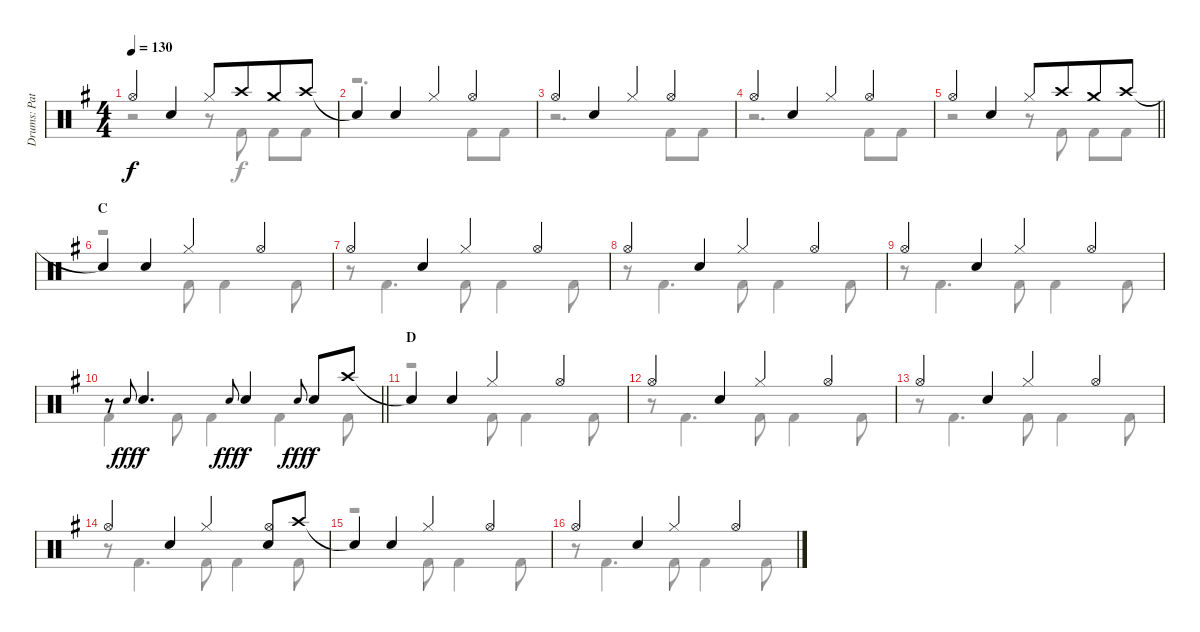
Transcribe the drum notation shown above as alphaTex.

\track ("Drums: Pat" "Drums: Pat") {instrument percussion}
\staff {score}
\articulation defaults
\voice
\ts (4 4)
\tempo 130
\clef neutral
\ks g "Hi-Hat (open)".4{dy f} "Snare (hit) 2".4 "Hi-Hat (closed)".8 "Crash high (hit)".8{beam merge} "Crash medium (hit)".8 "Crash high (hit)".8
|
"Snare (hit)"{t}.4 "Snare (hit) 2".4 "Hi-Hat (closed)".4 "Hi-Hat (open)".4 |
"Hi-Hat (open)".4 "Snare (hit) 2".4 "Hi-Hat (closed)".4 "Hi-Hat (open)".4 |
"Hi-Hat (open)".4 "Snare (hit) 2".4 "Hi-Hat (closed)".4 "Hi-Hat (open)".4 |
\barLineRight lightlight "Hi-Hat (open)".4 "Snare (hit) 2".4 "Hi-Hat (closed)".8 "Crash high (hit)".8{beam merge} "Crash medium (hit)".8 "Crash high (hit)".8
|
\section ("" "C")
"Snare (hit)"{t}.4 "Snare (hit) 2".4 "Hi-Hat (closed)".4 "Hi-Hat (open)".4 |
"Hi-Hat (open)".4 "Snare (hit) 2".4 "Hi-Hat (closed)".4 "Hi-Hat (open)".4 |
"Hi-Hat (open)".4 "Snare (hit) 2".4 "Hi-Hat (closed)".4 "Hi-Hat (open)".4 |
"Hi-Hat (open)".4 "Snare (hit) 2".4 "Hi-Hat (closed)".4 "Hi-Hat (open)".4 |
\barLineRight lightlight
r.8 "Electric Snare (hit)".8{gr onbeat dy fff} "Snare (hit) 2".4{d dy f} "Electric Snare (hit)".8{gr onbeat dy fff} "Snare (hit) 2".4{dy f} "Electric Snare (hit)".8{gr onbeat dy fff} "Snare (hit) 2".8{dy f} "Crash high (hit)".8 |
\section ("" "D")
"Snare (hit)"{t}.4 "Snare (hit) 2".4 "Hi-Hat (closed)".4 "Hi-Hat (open)".4 |
"Hi-Hat (open)".4 "Snare (hit) 2".4 "Hi-Hat (closed)".4 "Hi-Hat (open)".4 |
"Hi-Hat (open)".4 "Snare (hit) 2".4 "Hi-Hat (closed)".4 "Hi-Hat (open)".4 |
"Hi-Hat (open)".4 "Snare (hit) 2".4 "Hi-Hat (closed)".4 ("Hi-Hat (open)" "Snare (hit) 2").8 "Crash high (hit)".8 |
"Snare (hit)"{t}.4 "Snare (hit) 2".4 "Hi-Hat (closed)".4 "Hi-Hat (open)".4 |
"Hi-Hat (open)".4 "Snare (hit) 2".4 "Hi-Hat (closed)".4 "Hi-Hat (open)".4
\voice
\clef neutral
\ottava regular
\simile none
\ks g
r.2{dy f} r.8 "Kick (hit) 2".8 "Kick (hit) 2".8 "Kick (hit) 2".8 |
r.2{d} "Kick (hit) 2".8 "Kick (hit) 2".8 |
r.2{d} "Kick (hit) 2".8 "Kick (hit) 2".8 |
r.2{d} "Kick (hit) 2".8 "Kick (hit) 2".8 |
\barLineRight lightlight
r.2 r.8 "Kick (hit) 2".8 "Kick (hit) 2".8 "Kick (hit) 2".8 |
r.2 "Kick (hit) 2".8 "Kick (hit) 2".4 "Kick (hit) 2".8 |
r.8 "Kick (hit) 2".4{d} "Kick (hit) 2".8 "Kick (hit) 2".4 "Kick (hit) 2".8 |
r.8 "Kick (hit) 2".4{d} "Kick (hit) 2".8 "Kick (hit) 2".4 "Kick (hit) 2".8 |
r.8 "Kick (hit) 2".4{d} "Kick (hit) 2".8 "Kick (hit) 2".4 "Kick (hit) 2".8 |
\barLineRight lightlight "Kick (hit) 2".4 "Kick (hit) 2".8 "Kick (hit) 2".4 "Kick (hit) 2".4 "Kick (hit) 2".8
|
r.2 "Kick (hit) 2".8 "Kick (hit) 2".4 "Kick (hit) 2".8 |
r.8 "Kick (hit) 2".4{d} "Kick (hit) 2".8 "Kick (hit) 2".4 "Kick (hit) 2".8 |
r.8 "Kick (hit) 2".4{d} "Kick (hit) 2".8 "Kick (hit) 2".4 "Kick (hit) 2".8 |
r.8 "Kick (hit) 2".4{d} "Kick (hit) 2".8 "Kick (hit) 2".4 "Kick (hit) 2".8 |
r.2 "Kick (hit) 2".8 "Kick (hit) 2".4 "Kick (hit) 2".8 |
r.8 "Kick (hit) 2".4{d} "Kick (hit) 2".8 "Kick (hit) 2".4 "Kick (hit) 2".8
